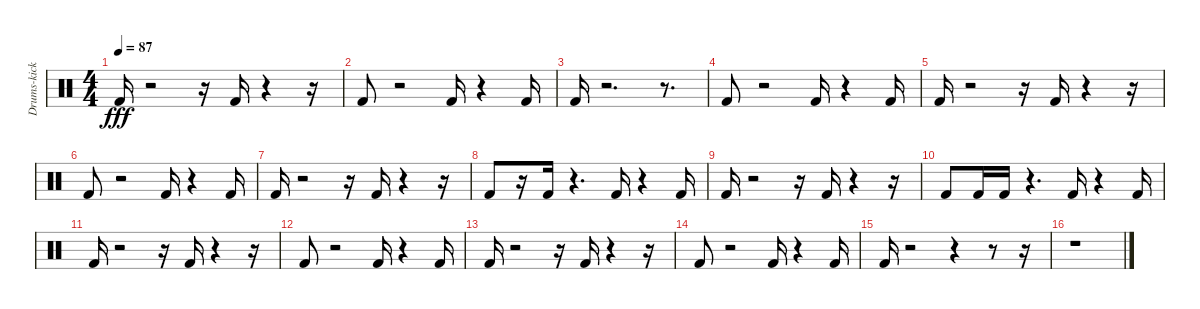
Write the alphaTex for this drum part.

\track ("Drums-kick drum 1" "Drums-kick") {instrument percussion}
\staff {score}
\articulation defaults
\ts (4 4)
\tempo 87
\clef neutral
\ks c "Kick (hit) 2".16{dy fff}
r.2 r.16 "Kick (hit) 2".16 r.4 r.16 |
"Kick (hit) 2".8 r.2 "Kick (hit) 2".16 r.4 "Kick (hit) 2".16 |
"Kick (hit) 2".16 r.2{d} r.8{d} |
"Kick (hit) 2".8 r.2 "Kick (hit) 2".16 r.4 "Kick (hit) 2".16 |
"Kick (hit) 2".16 r.2 r.16 "Kick (hit) 2".16 r.4 r.16 |
"Kick (hit) 2".8 r.2 "Kick (hit) 2".16 r.4 "Kick (hit) 2".16 |
"Kick (hit) 2".16 r.2 r.16 "Kick (hit) 2".16 r.4 r.16 |
"Kick (hit) 2".8 r.16 "Kick (hit) 2".16 r.4{d} "Kick (hit) 2".16 r.4 "Kick (hit) 2".16 |
"Kick (hit) 2".16 r.2 r.16 "Kick (hit) 2".16 r.4 r.16 |
"Kick (hit) 2".8 "Kick (hit) 2".16 "Kick (hit) 2".16 r.4{d} "Kick (hit) 2".16 r.4 "Kick (hit) 2".16 |
"Kick (hit) 2".16 r.2 r.16 "Kick (hit) 2".16 r.4 r.16 |
"Kick (hit) 2".8 r.2 "Kick (hit) 2".16 r.4 "Kick (hit) 2".16 |
"Kick (hit) 2".16 r.2 r.16 "Kick (hit) 2".16 r.4 r.16 |
"Kick (hit) 2".8 r.2 "Kick (hit) 2".16 r.4 "Kick (hit) 2".16 |
"Kick (hit) 2".16 r.2 r.4 r.8 r.16 |
r.1
